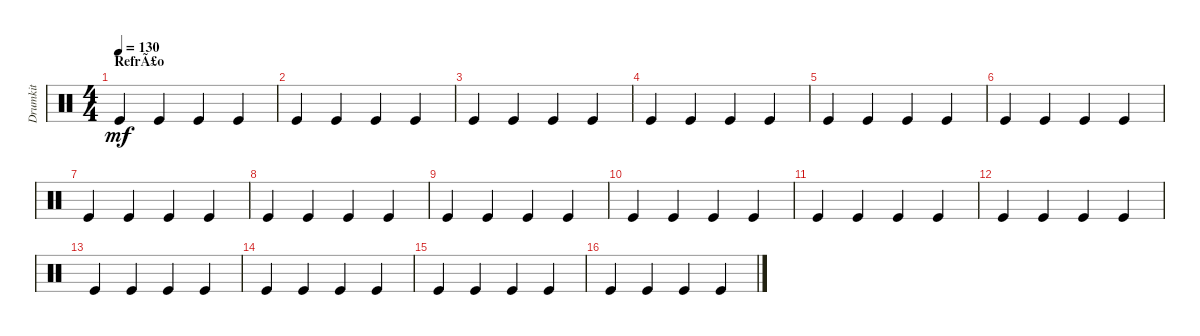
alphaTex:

\track ("Drumkit" "Drumkit") {instrument percussion}
\staff {score}
\articulation defaults
\ts (4 4)
\section ("" "RefrÃ£o")
\tempo 130
\clef neutral
\ks c "Kick (hit)".4{dy mf} "Kick (hit)".4 "Kick (hit)".4 "Kick (hit)".4
|
"Kick (hit)".4 "Kick (hit)".4 "Kick (hit)".4 "Kick (hit)".4 |
"Kick (hit)".4 "Kick (hit)".4 "Kick (hit)".4 "Kick (hit)".4 |
"Kick (hit)".4 "Kick (hit)".4 "Kick (hit)".4 "Kick (hit)".4 |
"Kick (hit)".4 "Kick (hit)".4 "Kick (hit)".4 "Kick (hit)".4 |
"Kick (hit)".4 "Kick (hit)".4 "Kick (hit)".4 "Kick (hit)".4 |
"Kick (hit)".4 "Kick (hit)".4 "Kick (hit)".4 "Kick (hit)".4 |
"Kick (hit)".4 "Kick (hit)".4 "Kick (hit)".4 "Kick (hit)".4 |
"Kick (hit)".4 "Kick (hit)".4 "Kick (hit)".4 "Kick (hit)".4 |
"Kick (hit)".4 "Kick (hit)".4 "Kick (hit)".4 "Kick (hit)".4 |
"Kick (hit)".4 "Kick (hit)".4 "Kick (hit)".4 "Kick (hit)".4 |
"Kick (hit)".4 "Kick (hit)".4 "Kick (hit)".4 "Kick (hit)".4 |
"Kick (hit)".4 "Kick (hit)".4 "Kick (hit)".4 "Kick (hit)".4 |
"Kick (hit)".4 "Kick (hit)".4 "Kick (hit)".4 "Kick (hit)".4 |
"Kick (hit)".4 "Kick (hit)".4 "Kick (hit)".4 "Kick (hit)".4 |
"Kick (hit)".4 "Kick (hit)".4 "Kick (hit)".4 "Kick (hit)".4
